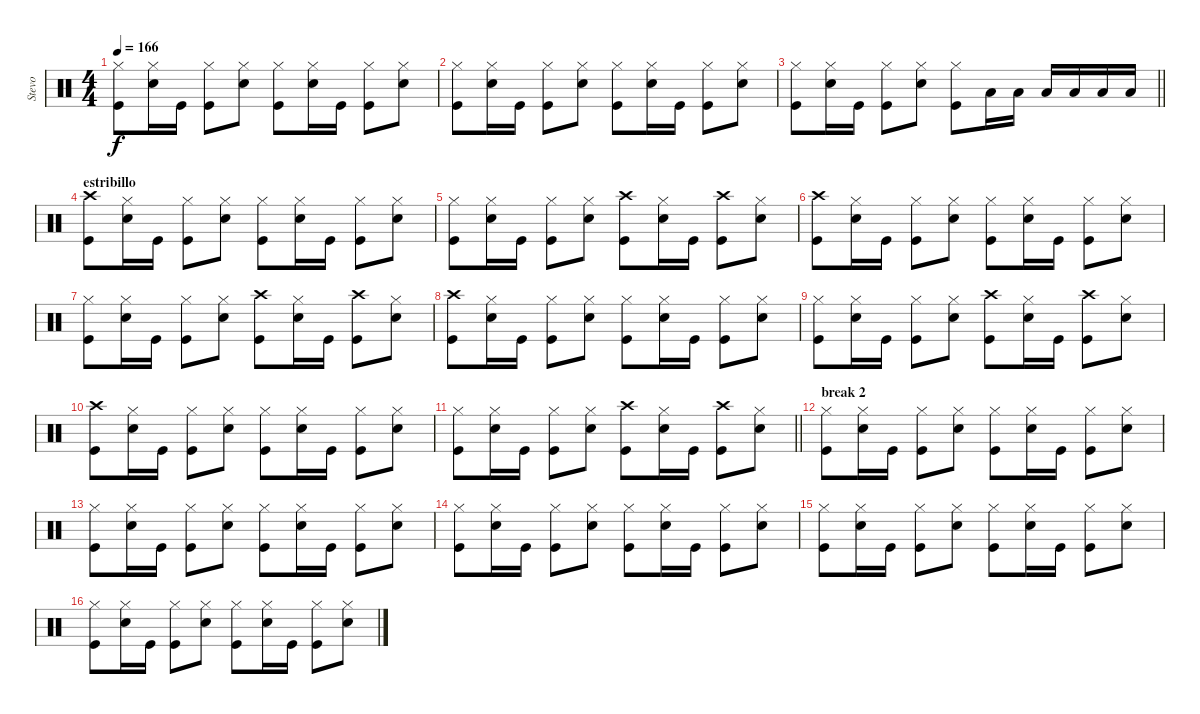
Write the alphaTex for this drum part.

\track ("Stevo" "Stevo") {instrument percussion}
\staff {score}
\articulation defaults
\ts (4 4)
\tempo 166
\clef neutral
\ks c
("Hi-Hat (closed)" "Kick (hit)").8{dy f} ("Hi-Hat (closed)" "Electric Snare (hit)").16 "Kick (hit)".16 ("Hi-Hat (closed)" "Kick (hit)").8 ("Hi-Hat (closed)" "Electric Snare (hit)").8 ("Hi-Hat (closed)" "Kick (hit)").8 ("Hi-Hat (closed)" "Electric Snare (hit)").16 "Kick (hit)".16 ("Hi-Hat (closed)" "Kick (hit)").8 ("Hi-Hat (closed)" "Electric Snare (hit)").8 |
("Hi-Hat (closed)" "Kick (hit)").8 ("Hi-Hat (closed)" "Electric Snare (hit)").16 "Kick (hit)".16 ("Hi-Hat (closed)" "Kick (hit)").8 ("Hi-Hat (closed)" "Electric Snare (hit)").8 ("Hi-Hat (closed)" "Kick (hit)").8 ("Hi-Hat (closed)" "Electric Snare (hit)").16 "Kick (hit)".16 ("Hi-Hat (closed)" "Kick (hit)").8 ("Hi-Hat (closed)" "Electric Snare (hit)").8 |
\barLineRight lightlight
("Hi-Hat (closed)" "Kick (hit)").8 ("Hi-Hat (closed)" "Electric Snare (hit)").16 "Kick (hit)".16 ("Hi-Hat (closed)" "Kick (hit)").8 ("Hi-Hat (closed)" "Electric Snare (hit)").8 ("Hi-Hat (closed)" "Kick (hit)").8 "Low Floor Tom (hit)".16 "Low Floor Tom (hit)".16 "Low Floor Tom (hit)".16 "Low Tom (hit)".16 "Low Tom (hit)".16 "Low Floor Tom (hit)".16 |
\section ("" "estribillo")
("Crash high (hit)" "Kick (hit)").8 ("Hi-Hat (closed)" "Electric Snare (hit)").16 "Kick (hit)".16 ("Hi-Hat (closed)" "Kick (hit)").8 ("Hi-Hat (closed)" "Electric Snare (hit)").8 ("Hi-Hat (closed)" "Kick (hit)").8 ("Hi-Hat (closed)" "Electric Snare (hit)").16 "Kick (hit)".16 ("Hi-Hat (closed)" "Kick (hit)").8 ("Hi-Hat (closed)" "Electric Snare (hit)").8 |
("Hi-Hat (closed)" "Kick (hit)").8 ("Hi-Hat (closed)" "Electric Snare (hit)").16 "Kick (hit)".16 ("Hi-Hat (closed)" "Kick (hit)").8 ("Hi-Hat (closed)" "Electric Snare (hit)").8 ("Crash high (hit)" "Kick (hit)").8 ("Hi-Hat (closed)" "Electric Snare (hit)").16 "Kick (hit)".16 ("Crash high (hit)" "Kick (hit)").8 ("Hi-Hat (closed)" "Electric Snare (hit)").8 |
("Crash high (hit)" "Kick (hit)").8 ("Hi-Hat (closed)" "Electric Snare (hit)").16 "Kick (hit)".16 ("Hi-Hat (closed)" "Kick (hit)").8 ("Hi-Hat (closed)" "Electric Snare (hit)").8 ("Hi-Hat (closed)" "Kick (hit)").8 ("Hi-Hat (closed)" "Electric Snare (hit)").16 "Kick (hit)".16 ("Hi-Hat (closed)" "Kick (hit)").8 ("Hi-Hat (closed)" "Electric Snare (hit)").8 |
("Hi-Hat (closed)" "Kick (hit)").8 ("Hi-Hat (closed)" "Electric Snare (hit)").16 "Kick (hit)".16 ("Hi-Hat (closed)" "Kick (hit)").8 ("Hi-Hat (closed)" "Electric Snare (hit)").8 ("Crash high (hit)" "Kick (hit)").8 ("Hi-Hat (closed)" "Electric Snare (hit)").16 "Kick (hit)".16 ("Crash high (hit)" "Kick (hit)").8 ("Hi-Hat (closed)" "Electric Snare (hit)").8 |
("Crash high (hit)" "Kick (hit)").8 ("Hi-Hat (closed)" "Electric Snare (hit)").16 "Kick (hit)".16 ("Hi-Hat (closed)" "Kick (hit)").8 ("Hi-Hat (closed)" "Electric Snare (hit)").8 ("Hi-Hat (closed)" "Kick (hit)").8 ("Hi-Hat (closed)" "Electric Snare (hit)").16 "Kick (hit)".16 ("Hi-Hat (closed)" "Kick (hit)").8 ("Hi-Hat (closed)" "Electric Snare (hit)").8 |
("Hi-Hat (closed)" "Kick (hit)").8 ("Hi-Hat (closed)" "Electric Snare (hit)").16 "Kick (hit)".16 ("Hi-Hat (closed)" "Kick (hit)").8 ("Hi-Hat (closed)" "Electric Snare (hit)").8 ("Crash high (hit)" "Kick (hit)").8 ("Hi-Hat (closed)" "Electric Snare (hit)").16 "Kick (hit)".16 ("Crash high (hit)" "Kick (hit)").8 ("Hi-Hat (closed)" "Electric Snare (hit)").8 |
("Crash high (hit)" "Kick (hit)").8 ("Hi-Hat (closed)" "Electric Snare (hit)").16 "Kick (hit)".16 ("Hi-Hat (closed)" "Kick (hit)").8 ("Hi-Hat (closed)" "Electric Snare (hit)").8 ("Hi-Hat (closed)" "Kick (hit)").8 ("Hi-Hat (closed)" "Electric Snare (hit)").16 "Kick (hit)".16 ("Hi-Hat (closed)" "Kick (hit)").8 ("Hi-Hat (closed)" "Electric Snare (hit)").8 |
\barLineRight lightlight
("Hi-Hat (closed)" "Kick (hit)").8 ("Hi-Hat (closed)" "Electric Snare (hit)").16 "Kick (hit)".16 ("Hi-Hat (closed)" "Kick (hit)").8 ("Hi-Hat (closed)" "Electric Snare (hit)").8 ("Crash high (hit)" "Kick (hit)").8 ("Hi-Hat (closed)" "Electric Snare (hit)").16 "Kick (hit)".16 ("Crash high (hit)" "Kick (hit)").8 ("Hi-Hat (closed)" "Electric Snare (hit)").8 |
\section ("" "break 2")
("Hi-Hat (closed)" "Kick (hit)").8 ("Hi-Hat (closed)" "Electric Snare (hit)").16 "Kick (hit)".16 ("Hi-Hat (closed)" "Kick (hit)").8 ("Hi-Hat (closed)" "Electric Snare (hit)").8 ("Hi-Hat (closed)" "Kick (hit)").8 ("Hi-Hat (closed)" "Electric Snare (hit)").16 "Kick (hit)".16 ("Hi-Hat (closed)" "Kick (hit)").8 ("Hi-Hat (closed)" "Electric Snare (hit)").8 |
("Hi-Hat (closed)" "Kick (hit)").8 ("Hi-Hat (closed)" "Electric Snare (hit)").16 "Kick (hit)".16 ("Hi-Hat (closed)" "Kick (hit)").8 ("Hi-Hat (closed)" "Electric Snare (hit)").8 ("Hi-Hat (closed)" "Kick (hit)").8 ("Hi-Hat (closed)" "Electric Snare (hit)").16 "Kick (hit)".16 ("Hi-Hat (closed)" "Kick (hit)").8 ("Hi-Hat (closed)" "Electric Snare (hit)").8 |
("Hi-Hat (closed)" "Kick (hit)").8 ("Hi-Hat (closed)" "Electric Snare (hit)").16 "Kick (hit)".16 ("Hi-Hat (closed)" "Kick (hit)").8 ("Hi-Hat (closed)" "Electric Snare (hit)").8 ("Hi-Hat (closed)" "Kick (hit)").8 ("Hi-Hat (closed)" "Electric Snare (hit)").16 "Kick (hit)".16 ("Hi-Hat (closed)" "Kick (hit)").8 ("Hi-Hat (closed)" "Electric Snare (hit)").8 |
("Hi-Hat (closed)" "Kick (hit)").8 ("Hi-Hat (closed)" "Electric Snare (hit)").16 "Kick (hit)".16 ("Hi-Hat (closed)" "Kick (hit)").8 ("Hi-Hat (closed)" "Electric Snare (hit)").8 ("Hi-Hat (closed)" "Kick (hit)").8 ("Hi-Hat (closed)" "Electric Snare (hit)").16 "Kick (hit)".16 ("Hi-Hat (closed)" "Kick (hit)").8 ("Hi-Hat (closed)" "Electric Snare (hit)").8 |
("Hi-Hat (closed)" "Kick (hit)").8 ("Hi-Hat (closed)" "Electric Snare (hit)").16 "Kick (hit)".16 ("Hi-Hat (closed)" "Kick (hit)").8 ("Hi-Hat (closed)" "Electric Snare (hit)").8 ("Hi-Hat (closed)" "Kick (hit)").8 ("Hi-Hat (closed)" "Electric Snare (hit)").16 "Kick (hit)".16 ("Hi-Hat (closed)" "Kick (hit)").8 ("Hi-Hat (closed)" "Electric Snare (hit)").8
